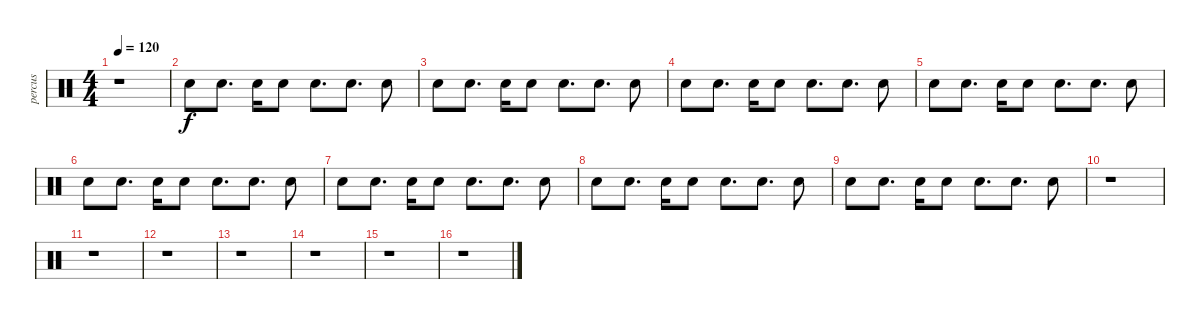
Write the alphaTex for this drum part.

\track ("percus" "percus") {instrument percussion}
\staff {score}
\articulation defaults
\ts (4 4)
\tempo 120
\clef neutral
\ks c
r.1{dy f} |
"Snare (hit)".8 "Snare (hit)".8{d} "Snare (hit)".16 "Snare (hit)".8 "Snare (hit)".8{d} "Snare (hit)".8{d} "Snare (hit)".8 |
"Snare (hit)".8 "Snare (hit)".8{d} "Snare (hit)".16 "Snare (hit)".8 "Snare (hit)".8{d} "Snare (hit)".8{d} "Snare (hit)".8 |
"Snare (hit)".8 "Snare (hit)".8{d} "Snare (hit)".16 "Snare (hit)".8 "Snare (hit)".8{d} "Snare (hit)".8{d} "Snare (hit)".8 |
"Snare (hit)".8 "Snare (hit)".8{d} "Snare (hit)".16 "Snare (hit)".8 "Snare (hit)".8{d} "Snare (hit)".8{d} "Snare (hit)".8 |
"Snare (hit)".8 "Snare (hit)".8{d} "Snare (hit)".16 "Snare (hit)".8 "Snare (hit)".8{d} "Snare (hit)".8{d} "Snare (hit)".8 |
"Snare (hit)".8 "Snare (hit)".8{d} "Snare (hit)".16 "Snare (hit)".8 "Snare (hit)".8{d} "Snare (hit)".8{d} "Snare (hit)".8 |
"Snare (hit)".8 "Snare (hit)".8{d} "Snare (hit)".16 "Snare (hit)".8 "Snare (hit)".8{d} "Snare (hit)".8{d} "Snare (hit)".8 |
"Snare (hit)".8 "Snare (hit)".8{d} "Snare (hit)".16 "Snare (hit)".8 "Snare (hit)".8{d} "Snare (hit)".8{d} "Snare (hit)".8 |
r.1 |
r.1 |
r.1 |
r.1 |
r.1 |
r.1 |
r.1
